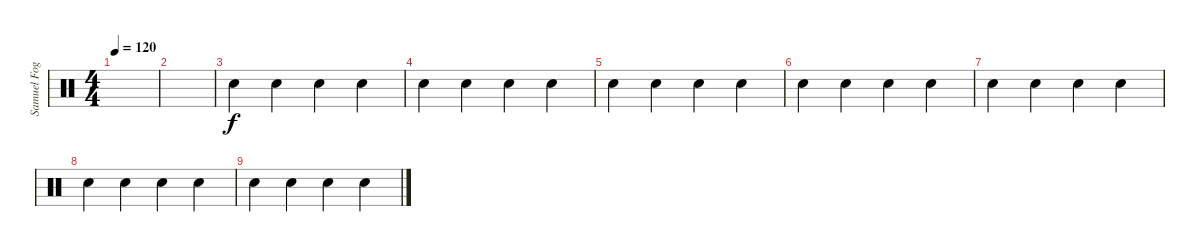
\track ("Samuel Fogarino" "Samuel Fog") {instrument percussion}
\staff {score}
\articulation defaults
\ts (4 4)
\tempo 120
\clef neutral
\ks c
|
|
"Hand Clap (hit)".4 "Hand Clap (hit)".4 "Hand Clap (hit)".4 "Hand Clap (hit)".4 |
"Hand Clap (hit)".4 "Hand Clap (hit)".4 "Hand Clap (hit)".4 "Hand Clap (hit)".4 |
"Hand Clap (hit)".4 "Hand Clap (hit)".4 "Hand Clap (hit)".4 "Hand Clap (hit)".4 |
"Hand Clap (hit)".4 "Hand Clap (hit)".4 "Hand Clap (hit)".4 "Hand Clap (hit)".4 |
"Hand Clap (hit)".4 "Hand Clap (hit)".4 "Hand Clap (hit)".4 "Hand Clap (hit)".4 |
"Hand Clap (hit)".4 "Hand Clap (hit)".4 "Hand Clap (hit)".4 "Hand Clap (hit)".4 |
"Hand Clap (hit)".4 "Hand Clap (hit)".4 "Hand Clap (hit)".4 "Hand Clap (hit)".4
